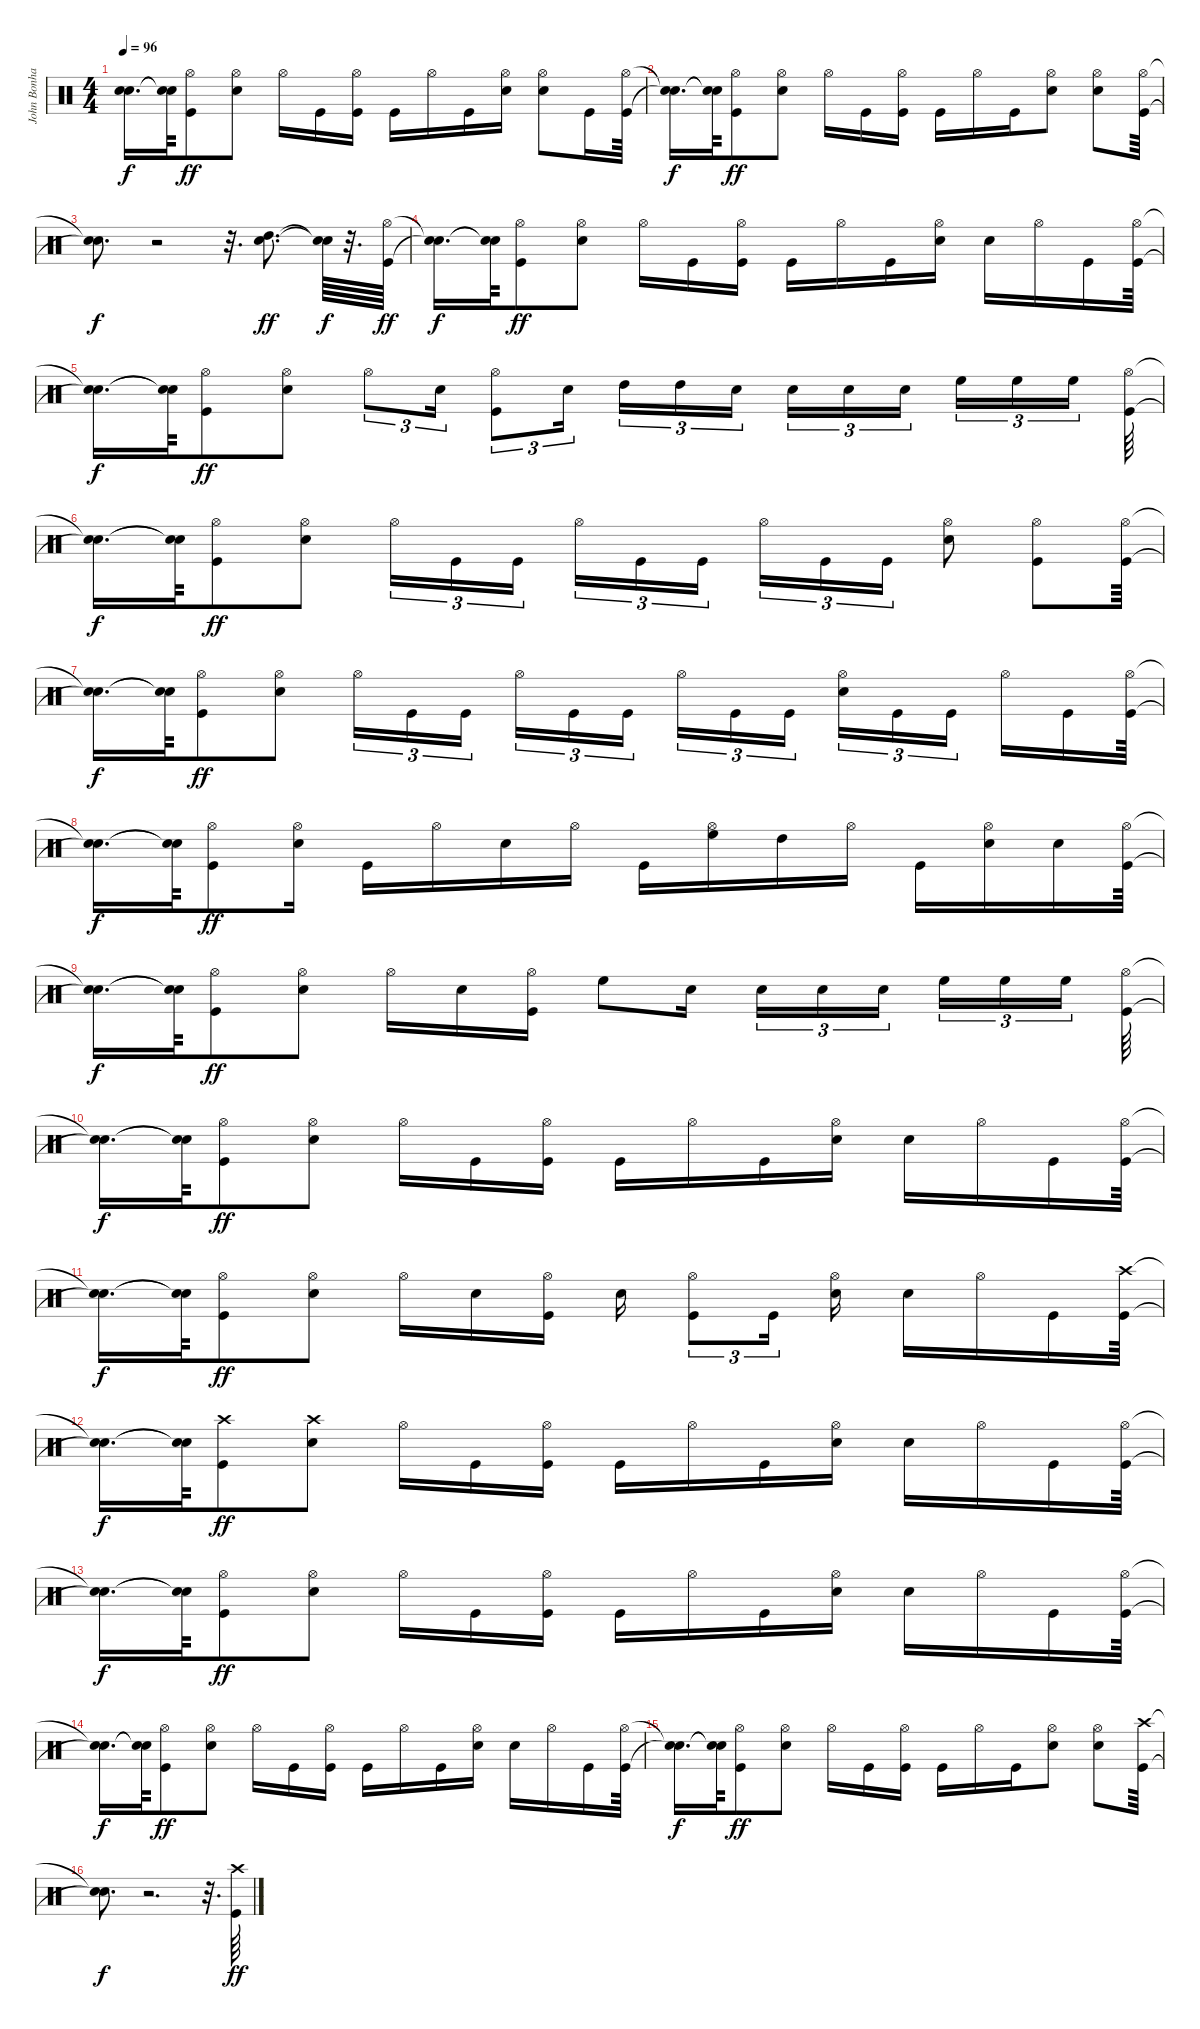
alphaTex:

\track ("John Bonham - Drums" "John Bonha") {instrument percussion}
\staff {score}
\articulation defaults
\ts (4 4)
\tempo 96
\clef neutral
\ks c
("Snare (hit)"{t} "Snare (hit)"{t}).16{d dy f} ("Snare (hit)"{t} "Snare (hit)"{t}).64 ("Hi-Hat (open)" "Kick (hit)").8{dy ff} ("Hi-Hat (open)" "Snare (hit) 2").8 "Hi-Hat (open)".16 "Kick (hit)".16 ("Hi-Hat (open)" "Kick (hit)").16 "Kick (hit)".16 "Hi-Hat (open)".16 "Kick (hit)".16 ("Hi-Hat (open)" "Snare (hit) 2").16 ("Hi-Hat (open)" "Snare (hit) 2").8 "Kick (hit)".16 ("Hi-Hat (open)" "Kick (hit)").64 |
("Snare (hit)"{t} "Snare (hit)"{t}).16{d dy f} ("Snare (hit)"{t} "Snare (hit)"{t}).64 ("Hi-Hat (open)" "Kick (hit)").8{dy ff} ("Hi-Hat (open)" "Snare (hit) 2").8 "Hi-Hat (open)".16 "Kick (hit)".16 ("Hi-Hat (open)" "Kick (hit)").16 "Kick (hit)".16 "Hi-Hat (open)".16 "Kick (hit)".16 ("Hi-Hat (open)" "Snare (hit) 2").8 ("Hi-Hat (open)" "Snare (hit) 2").8 ("Hi-Hat (open)" "Kick (hit)").64 |
("Snare (hit)"{t} "Snare (hit)"{t}).8{d dy f} r.2 r.32{d} ("Snare (hit) 2" "High Tom (hit)").8{d dy ff} ("Snare (hit)"{t} "Snare (hit)"{t}).64{dy f} r.32{d} ("Hi-Hat (open)" "Kick (hit)").64{dy ff} |
("Snare (hit)"{t} "Snare (hit)"{t}).16{d dy f} ("Snare (hit)"{t} "Snare (hit)"{t}).64 ("Hi-Hat (open)" "Kick (hit)").8{dy ff} ("Hi-Hat (open)" "Snare (hit) 2").8 "Hi-Hat (open)".16 "Kick (hit)".16 ("Hi-Hat (open)" "Kick (hit)").16 "Kick (hit)".16 "Hi-Hat (open)".16 "Kick (hit)".16 ("Hi-Hat (open)" "Snare (hit) 2").16 "Snare (hit) 2".16 "Hi-Hat (open)".16 "Kick (hit)".16 ("Hi-Hat (open)" "Kick (hit)").64 |
("Snare (hit)"{t} "Snare (hit)"{t}).16{d dy f} ("Snare (hit)"{t} "Snare (hit)"{t}).64 ("Hi-Hat (open)" "Kick (hit)").8{dy ff} ("Hi-Hat (open)" "Snare (hit) 2").8 "Hi-Hat (open)".8{tu (3 2)} "Snare (hit) 2".16{tu (3 2)} ("Hi-Hat (open)" "Kick (hit)").8{tu (3 2)} "Snare (hit) 2".16{tu (3 2) beam splitsecondary} "High Tom (hit)".16{tu (3 2)} "High Tom (hit)".16{tu (3 2)} "Snare (hit) 2".16{tu (3 2) beam splitsecondary} "Snare (hit) 2".16{tu (3 2)} "Snare (hit) 2".16{tu (3 2)} "Snare (hit) 2".16{tu (3 2) beam splitsecondary} "High Floor Tom (hit)".16{tu (3 2)} "High Floor Tom (hit)".16{tu (3 2)} "High Floor Tom (hit)".16{tu (3 2) beam splitsecondary} ("Hi-Hat (open)" "Kick (hit)").64 |
("Snare (hit)"{t} "Snare (hit)"{t}).16{d dy f} ("Snare (hit)"{t} "Snare (hit)"{t}).64 ("Hi-Hat (open)" "Kick (hit)").8{dy ff} ("Hi-Hat (open)" "Snare (hit) 2").8 "Hi-Hat (open)".16{tu (3 2)} "Kick (hit)".16{tu (3 2)} "Kick (hit)".16{tu (3 2) beam splitsecondary} "Hi-Hat (open)".16{tu (3 2)} "Kick (hit)".16{tu (3 2)} "Kick (hit)".16{tu (3 2) beam splitsecondary} "Hi-Hat (open)".16{tu (3 2)} "Kick (hit)".16{tu (3 2)} "Kick (hit)".16{tu (3 2)} ("Hi-Hat (open)" "Snare (hit) 2").8 ("Hi-Hat (open)" "Kick (hit)").8 ("Hi-Hat (open)" "Kick (hit)").64 |
("Snare (hit)"{t} "Snare (hit)"{t}).16{d dy f} ("Snare (hit)"{t} "Snare (hit)"{t}).64 ("Hi-Hat (open)" "Kick (hit)").8{dy ff} ("Hi-Hat (open)" "Snare (hit) 2").8 "Hi-Hat (open)".16{tu (3 2)} "Kick (hit)".16{tu (3 2)} "Kick (hit)".16{tu (3 2) beam splitsecondary} "Hi-Hat (open)".16{tu (3 2)} "Kick (hit)".16{tu (3 2)} "Kick (hit)".16{tu (3 2) beam splitsecondary} "Hi-Hat (open)".16{tu (3 2)} "Kick (hit)".16{tu (3 2)} "Kick (hit)".16{tu (3 2) beam splitsecondary} ("Hi-Hat (open)" "Snare (hit) 2").16{tu (3 2)} "Kick (hit)".16{tu (3 2)} "Kick (hit)".16{tu (3 2) beam splitsecondary} "Hi-Hat (open)".16 "Kick (hit)".16 ("Hi-Hat (open)" "Kick (hit)").64 |
("Snare (hit)"{t} "Snare (hit)"{t}).16{d dy f} ("Snare (hit)"{t} "Snare (hit)"{t}).64 ("Hi-Hat (open)" "Kick (hit)").8{dy ff} ("Hi-Hat (open)" "Snare (hit) 2").16 "Kick (hit)".16 "Hi-Hat (open)".16 "Snare (hit) 2".16 "Hi-Hat (open)".16 "Kick (hit)".16 ("Hi-Hat (open)" "High Floor Tom (hit)").16 "High Tom (hit)".16 "Hi-Hat (open)".16 "Kick (hit)".16 ("Hi-Hat (open)" "Snare (hit) 2").16 "Snare (hit) 2".16 ("Hi-Hat (open)" "Kick (hit)").64 |
("Snare (hit)"{t} "Snare (hit)"{t}).16{d dy f} ("Snare (hit)"{t} "Snare (hit)"{t}).64 ("Hi-Hat (open)" "Kick (hit)").8{dy ff} ("Hi-Hat (open)" "Snare (hit) 2").8 "Hi-Hat (open)".16 "Snare (hit) 2".16 ("Hi-Hat (open)" "Kick (hit)").16 "High Floor Tom (hit)".8 "Snare (hit) 2".16 "Snare (hit) 2".16{tu (3 2)} "Snare (hit) 2".16{tu (3 2)} "Snare (hit) 2".16{tu (3 2) beam splitsecondary} "High Floor Tom (hit)".16{tu (3 2)} "High Floor Tom (hit)".16{tu (3 2)} "High Floor Tom (hit)".16{tu (3 2) beam splitsecondary} ("Hi-Hat (open)" "Kick (hit)").64 |
("Snare (hit)"{t} "Snare (hit)"{t}).16{d dy f} ("Snare (hit)"{t} "Snare (hit)"{t}).64 ("Hi-Hat (open)" "Kick (hit)").8{dy ff} ("Hi-Hat (open)" "Snare (hit) 2").8 "Hi-Hat (open)".16 "Kick (hit)".16 ("Hi-Hat (open)" "Kick (hit)").16 "Kick (hit)".16 "Hi-Hat (open)".16 "Kick (hit)".16 ("Hi-Hat (open)" "Snare (hit) 2").16 "Snare (hit) 2".16 "Hi-Hat (open)".16 "Kick (hit)".16 ("Hi-Hat (open)" "Kick (hit)").64 |
("Snare (hit)"{t} "Snare (hit)"{t}).16{d dy f} ("Snare (hit)"{t} "Snare (hit)"{t}).64 ("Hi-Hat (open)" "Kick (hit)").8{dy ff} ("Hi-Hat (open)" "Snare (hit) 2").8 "Hi-Hat (open)".16 "Snare (hit) 2".16 ("Hi-Hat (open)" "Kick (hit)").16 "Snare (hit) 2".16 ("Hi-Hat (open)" "Kick (hit)").8{tu (3 2)} "Kick (hit)".16{tu (3 2)} ("Hi-Hat (open)" "Snare (hit) 2").16 "Snare (hit) 2".16 "Hi-Hat (open)".16 "Kick (hit)".16 ("Crash high (hit)" "Kick (hit)").64 |
("Snare (hit)"{t} "Snare (hit)"{t}).16{d dy f} ("Snare (hit)"{t} "Snare (hit)"{t}).64 ("Crash high (hit)" "Kick (hit)").8{dy ff} ("Crash high (hit)" "Snare (hit) 2").8 "Hi-Hat (open)".16 "Kick (hit)".16 ("Hi-Hat (open)" "Kick (hit)").16 "Kick (hit)".16 "Hi-Hat (open)".16 "Kick (hit)".16 ("Hi-Hat (open)" "Snare (hit) 2").16 "Snare (hit) 2".16 "Hi-Hat (open)".16 "Kick (hit)".16 ("Hi-Hat (open)" "Kick (hit)").64 |
("Snare (hit)"{t} "Snare (hit)"{t}).16{d dy f} ("Snare (hit)"{t} "Snare (hit)"{t}).64 ("Hi-Hat (open)" "Kick (hit)").8{dy ff} ("Hi-Hat (open)" "Snare (hit) 2").8 "Hi-Hat (open)".16 "Kick (hit)".16 ("Hi-Hat (open)" "Kick (hit)").16 "Kick (hit)".16 "Hi-Hat (open)".16 "Kick (hit)".16 ("Hi-Hat (open)" "Snare (hit) 2").16 "Snare (hit) 2".16 "Hi-Hat (open)".16 "Kick (hit)".16 ("Hi-Hat (open)" "Kick (hit)").64 |
("Snare (hit)"{t} "Snare (hit)"{t}).16{d dy f} ("Snare (hit)"{t} "Snare (hit)"{t}).64 ("Hi-Hat (open)" "Kick (hit)").8{dy ff} ("Hi-Hat (open)" "Snare (hit) 2").8 "Hi-Hat (open)".16 "Kick (hit)".16 ("Hi-Hat (open)" "Kick (hit)").16 "Kick (hit)".16 "Hi-Hat (open)".16 "Kick (hit)".16 ("Hi-Hat (open)" "Snare (hit) 2").16 "Snare (hit) 2".16 "Hi-Hat (open)".16 "Kick (hit)".16 ("Hi-Hat (open)" "Kick (hit)").64 |
("Snare (hit)"{t} "Snare (hit)"{t}).16{d dy f} ("Snare (hit)"{t} "Snare (hit)"{t}).64 ("Hi-Hat (open)" "Kick (hit)").8{dy ff} ("Hi-Hat (open)" "Snare (hit) 2").8 "Hi-Hat (open)".16 "Kick (hit)".16 ("Hi-Hat (open)" "Kick (hit)").16 "Kick (hit)".16 "Hi-Hat (open)".16 "Kick (hit)".16 ("Hi-Hat (open)" "Snare (hit) 2").8 ("Hi-Hat (open)" "Snare (hit) 2").8 ("Crash high (hit)" "Kick (hit)").64 |
("Snare (hit)"{t} "Snare (hit)"{t}).8{d dy f} r.2{d} r.32{d} ("Crash high (hit)" "Kick (hit)").64{dy ff}
